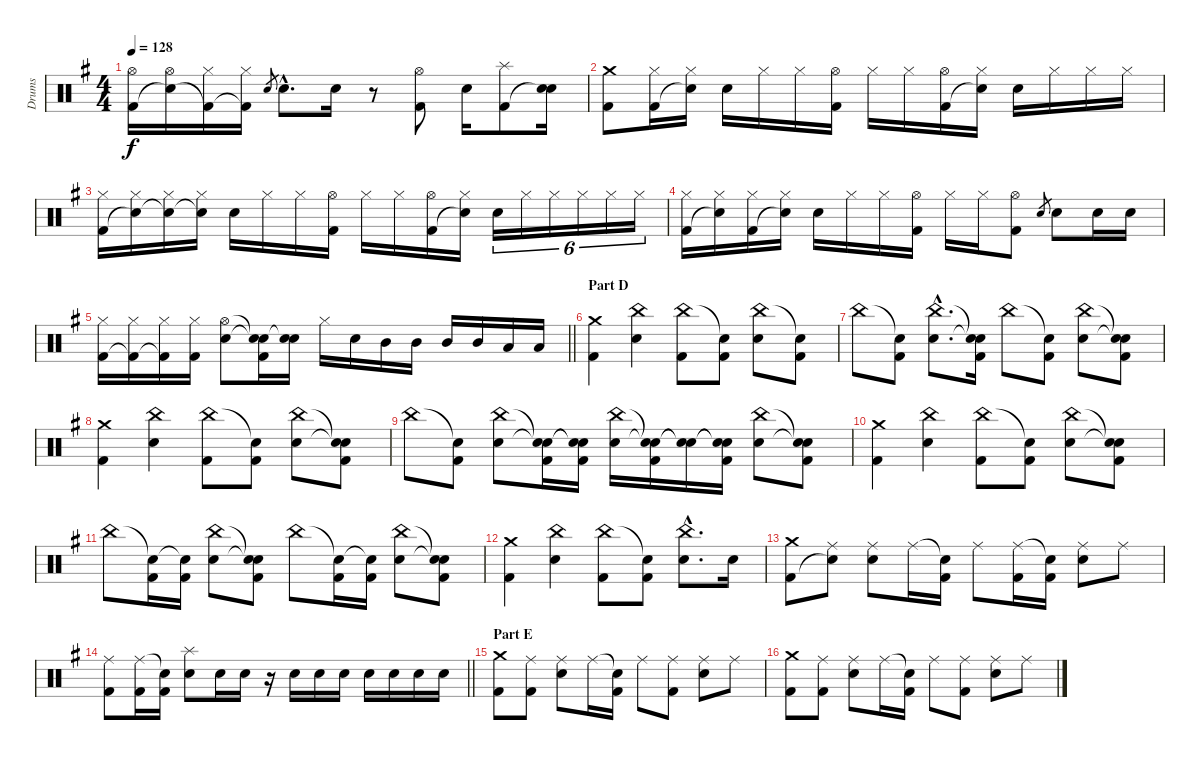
\track ("Drums" "Drums") {instrument percussion}
\staff {score}
\articulation defaults
\ts (4 4)
\tempo 128
\clef neutral
\ks g
("Hi-Hat (open)" "Kick (hit) 2").16{dy f} ("Hi-Hat (open)" "Snare (hit)"{t}).16 ("Hi-Hat (closed)" "Kick (hit) 2"{t}).16 ("Hi-Hat (closed)" "Kick (hit) 2"{t}).16 "Electric Snare (hit)".8{gr} "Electric Snare (hit)"{hac}.8{d} "Electric Snare (hit)".16 r.8 ("Hi-Hat (open)" "Kick (hit) 2").8 "Electric Snare (hit)".16 ("Splash (hit)" "Kick (hit) 2").8 ("Electric Snare (hit)" "Snare (hit)"{t}).16 |
("Crash medium (hit)" "Kick (hit) 2").8 ("Hi-Hat (closed)" "Kick (hit) 2").16 ("Hi-Hat (closed)" "Snare (hit)"{t}).16 "Electric Snare (hit)".16 "Hi-Hat (closed)".16 "Hi-Hat (closed)".16 ("Hi-Hat (open)" "Kick (hit) 2").16 "Hi-Hat (closed)".16 "Hi-Hat (closed)".16 ("Hi-Hat (open)" "Kick (hit) 2").16 ("Hi-Hat (closed)" "Snare (hit)"{t}).16 "Electric Snare (hit)".16 "Hi-Hat (closed)".16 "Hi-Hat (closed)".16 "Hi-Hat (closed)".16 |
("Hi-Hat (closed)" "Kick (hit) 2").16 ("Hi-Hat (closed)" "Snare (hit)"{t}).16 ("Hi-Hat (closed)" "Snare (hit)"{t}).16 ("Hi-Hat (closed)" "Snare (hit)"{t}).16 "Electric Snare (hit)".16 "Hi-Hat (closed)".16 "Hi-Hat (closed)".16 ("Hi-Hat (open)" "Kick (hit) 2").16 "Hi-Hat (closed)".16 "Hi-Hat (closed)".16 ("Hi-Hat (open)" "Kick (hit) 2").16 ("Hi-Hat (closed)" "Snare (hit)"{t}).16 "Electric Snare (hit)".16{tu (6 4)} "Hi-Hat (closed)".16{tu (6 4)} "Hi-Hat (closed)".16{tu (6 4)} "Hi-Hat (closed)".16{tu (6 4)} "Hi-Hat (closed)".16{tu (6 4)} "Hi-Hat (closed)".16{tu (6 4)} |
("Hi-Hat (closed)" "Kick (hit) 2").16 ("Hi-Hat (closed)" "Snare (hit)"{t}).16 ("Hi-Hat (closed)" "Kick (hit) 2").16 ("Hi-Hat (closed)" "Snare (hit)"{t}).16 "Electric Snare (hit)".16 "Hi-Hat (closed)".16 "Hi-Hat (closed)".16 ("Hi-Hat (open)" "Kick (hit) 2").16 "Hi-Hat (closed)".16 "Hi-Hat (closed)".16 ("Hi-Hat (open)" "Kick (hit) 2").8 "Electric Snare (hit)".8{gr} "Electric Snare (hit)".8 "Electric Snare (hit)".16 "Electric Snare (hit)".16 |
\barLineRight lightlight
("Hi-Hat (closed)" "Kick (hit) 2").16 ("Hi-Hat (closed)" "Kick (hit) 2"{t}).16 ("Hi-Hat (closed)" "Kick (hit) 2"{t}).16 ("Hi-Hat (closed)" "Kick (hit) 2").16 ("Hi-Hat (open)" "Electric Snare (hit)").8 ("Snare (hit)"{t} "Snare (hit)"{t} "Kick (hit) 2").16 ("Electric Snare (hit)" "Snare (hit)"{t}).16 "Hi-Hat (closed)".16 "Electric Snare (hit)".16 "Mid Tom (hit)".16 "Mid Tom (hit)".16 "Mid Tom (hit)".16 "Mid Tom (hit)".16 "Low Tom (hit)".16 "Low Tom (hit)".16 |
\section ("" "Part D")
("Crash medium (hit)" "Kick (hit) 2").4 ("China (hit)" "Electric Snare (hit)").4 ("China (hit)" "Kick (hit) 2").8 ("Snare (hit)"{t} "Kick (hit) 2").8 ("China (hit)" "Electric Snare (hit)").8 ("Snare (hit)"{t} "Kick (hit) 2").8 |
"China (hit)".8 ("Snare (hit)"{t} "Kick (hit) 2").8 ("China (hit)"{hac} "Electric Snare (hit)"{hac}).8{d} ("Snare (hit)"{t} "Snare (hit)"{t} "Kick (hit) 2").16 "China (hit)".8 ("Snare (hit)"{t} "Kick (hit) 2").8 ("China (hit)" "Electric Snare (hit)").8 ("Snare (hit)"{t} "Snare (hit)"{t} "Kick (hit) 2").8 |
("Crash medium (hit)" "Kick (hit) 2").4 ("China (hit)" "Electric Snare (hit)").4 ("China (hit)" "Kick (hit) 2").8 ("Snare (hit)"{t} "Kick (hit) 2").8 ("China (hit)" "Electric Snare (hit)").8 ("Snare (hit)"{t} "Snare (hit)"{t} "Kick (hit) 2").8 |
"China (hit)".8 ("Snare (hit)"{t} "Kick (hit) 2").8 ("China (hit)" "Electric Snare (hit)").8 ("Snare (hit)"{t} "Snare (hit)"{t} "Kick (hit) 2").16 ("Snare (hit)"{t} "Snare (hit)"{t} "Kick (hit) 2").16 ("China (hit)" "Electric Snare (hit)").16 ("Snare (hit)"{t} "Snare (hit)"{t} "Kick (hit) 2").16 ("Snare (hit)"{t} "Snare (hit)"{t}).16 ("Snare (hit)"{t} "Snare (hit)"{t} "Kick (hit) 2").16 ("China (hit)" "Electric Snare (hit)").8 ("Snare (hit)"{t} "Snare (hit)"{t} "Kick (hit) 2").8 |
("Crash medium (hit)" "Kick (hit) 2").4 ("China (hit)" "Electric Snare (hit)").4 ("China (hit)" "Kick (hit) 2").8 ("Snare (hit)"{t} "Kick (hit) 2").8 ("China (hit)" "Electric Snare (hit)").8 ("Snare (hit)"{t} "Snare (hit)"{t} "Kick (hit) 2").8 |
"China (hit)".8 ("Snare (hit)"{t} "Kick (hit) 2").16 ("Snare (hit)"{t} "Kick (hit) 2").16 ("China (hit)" "Electric Snare (hit)").8 ("Snare (hit)"{t} "Snare (hit)"{t} "Kick (hit) 2").8 "China (hit)".8 ("Snare (hit)"{t} "Kick (hit) 2").16 ("Snare (hit)"{t} "Kick (hit) 2").16 ("China (hit)" "Electric Snare (hit)").8 ("Snare (hit)"{t} "Snare (hit)"{t} "Kick (hit) 2").8 |
("Crash medium (hit)" "Kick (hit) 2").4 ("China (hit)" "Electric Snare (hit)").4 ("China (hit)" "Kick (hit) 2").8 ("Snare (hit)"{t} "Kick (hit) 2").8 ("China (hit)"{hac} "Electric Snare (hit)"{hac}).8{d} "Electric Snare (hit)".16 |
("Crash medium (hit)" "Kick (hit) 2").8 ("Ride (middle)" "Snare (hit)"{t}).8 ("Ride (middle)" "Electric Snare (hit)").8 "Ride (middle)".16 ("Snare (hit)"{t} "Kick (hit) 2").16 "Ride (middle)".8 ("Ride (middle)" "Kick (hit) 2").16 ("Snare (hit)"{t} "Kick (hit) 2").16 ("Ride (middle)" "Electric Snare (hit)").8 "Ride (middle)".8 |
\barLineRight lightlight
("Ride (middle)" "Kick (hit) 2").8 ("Ride (middle)" "Kick (hit) 2").16 ("Snare (hit)"{t} "Kick (hit) 2").16 ("Splash (hit)" "Electric Snare (hit)").8 "Electric Snare (hit)".16 "Electric Snare (hit)".16 r.16 "Electric Snare (hit)".16 "Electric Snare (hit)".16 "Electric Snare (hit)".16 "Electric Snare (hit)".16 "Electric Snare (hit)".16 "Electric Snare (hit)".16 "Electric Snare (hit)".16 |
\section ("" "Part E")
("Crash medium (hit)" "Kick (hit) 2").8 ("Ride (middle)" "Kick (hit) 2").8 ("Ride (middle)" "Electric Snare (hit)").8 "Ride (middle)".16 ("Snare (hit)"{t} "Kick (hit) 2").16 "Ride (middle)".8 ("Ride (middle)" "Kick (hit) 2").8 ("Ride (middle)" "Electric Snare (hit)").8 "Ride (middle)".8 |
("Crash medium (hit)" "Kick (hit) 2").8 ("Ride (middle)" "Kick (hit) 2").8 ("Ride (middle)" "Electric Snare (hit)").8 "Ride (middle)".16 ("Snare (hit)"{t} "Kick (hit) 2").16 "Ride (middle)".8 ("Ride (middle)" "Kick (hit) 2").8 ("Ride (middle)" "Electric Snare (hit)").8 "Ride (middle)".8
